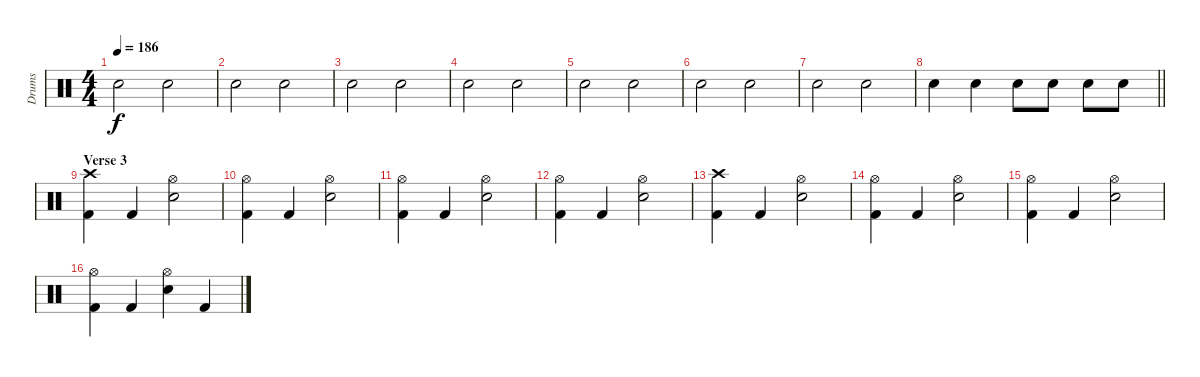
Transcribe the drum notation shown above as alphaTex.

\track ("Drums" "Drums") {instrument percussion}
\staff {score}
\articulation defaults
\ts (4 4)
\tempo 186
\clef neutral
\ks c "Electric Snare (hit)".2{dy f} "Electric Snare (hit)".2
|
"Electric Snare (hit)".2 "Electric Snare (hit)".2 |
"Electric Snare (hit)".2 "Electric Snare (hit)".2 |
"Electric Snare (hit)".2 "Electric Snare (hit)".2 |
"Electric Snare (hit)".2 "Electric Snare (hit)".2 |
"Electric Snare (hit)".2 "Electric Snare (hit)".2 |
"Electric Snare (hit)".2 "Electric Snare (hit)".2 |
\barLineRight lightlight "Electric Snare (hit)".4 "Electric Snare (hit)".4 "Electric Snare (hit)".8 "Electric Snare (hit)".8 "Electric Snare (hit)".8 "Electric Snare (hit)".8
|
\section ("" "Verse 3")
("Crash high (hit)" "Kick (hit) 2").4 "Kick (hit) 2".4 ("Hi-Hat (open)" "Electric Snare (hit)").2 |
("Hi-Hat (open)" "Kick (hit) 2").4 "Kick (hit) 2".4 ("Hi-Hat (open)" "Electric Snare (hit)").2 |
("Hi-Hat (open)" "Kick (hit) 2").4 "Kick (hit) 2".4 ("Hi-Hat (open)" "Electric Snare (hit)").2 |
("Hi-Hat (open)" "Kick (hit) 2").4 "Kick (hit) 2".4 ("Hi-Hat (open)" "Electric Snare (hit)").2 |
("Crash high (hit)" "Kick (hit) 2").4 "Kick (hit) 2".4 ("Hi-Hat (open)" "Electric Snare (hit)").2 |
("Hi-Hat (open)" "Kick (hit) 2").4 "Kick (hit) 2".4 ("Hi-Hat (open)" "Electric Snare (hit)").2 |
("Hi-Hat (open)" "Kick (hit) 2").4 "Kick (hit) 2".4 ("Hi-Hat (open)" "Electric Snare (hit)").2 |
("Hi-Hat (open)" "Kick (hit) 2").4 "Kick (hit) 2".4 ("Hi-Hat (open)" "Electric Snare (hit)").4 "Kick (hit) 2".4
